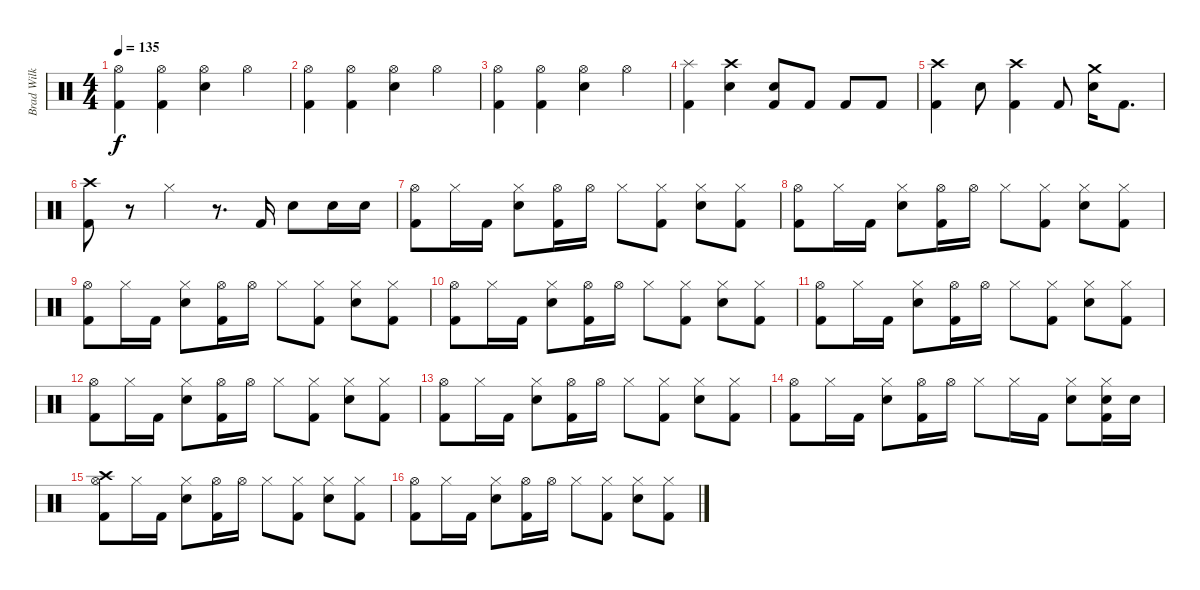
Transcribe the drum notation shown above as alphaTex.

\track ("Brad Wilk" "Brad Wilk") {instrument percussion}
\staff {score}
\articulation defaults
\ts (4 4)
\tempo 135
\clef neutral
\ks c
("Hi-Hat (open)" "Kick (hit) 2").4{dy f} ("Hi-Hat (open)" "Kick (hit) 2").4 ("Hi-Hat (open)" "Electric Snare (hit)").4 "Hi-Hat (open)".4 |
("Hi-Hat (open)" "Kick (hit) 2").4 ("Hi-Hat (open)" "Kick (hit) 2").4 ("Hi-Hat (open)" "Electric Snare (hit)").4 "Hi-Hat (open)".4 |
("Hi-Hat (open)" "Kick (hit) 2").4 ("Hi-Hat (open)" "Kick (hit) 2").4 ("Hi-Hat (open)" "Electric Snare (hit)").4 "Hi-Hat (open)".4 |
("Splash (hit)" "Kick (hit) 2").4 ("Crash high (hit)" "Electric Snare (hit)").4 ("Electric Snare (hit)" "Kick (hit) 2").8 "Kick (hit) 2".8 "Kick (hit) 2".8 "Kick (hit) 2".8 |
("Crash high (hit)" "Kick (hit) 2").4 "Electric Snare (hit)".8 ("Crash high (hit)" "Kick (hit) 2").4 "Kick (hit) 2".8 ("Crash medium (hit)" "Electric Snare (hit)").16 "Kick (hit) 2".8{d} |
("Crash high (hit)" "Kick (hit) 2").8 r.8 "Hi-Hat (closed)".4 r.8{d} "Kick (hit) 2".16 "Electric Snare (hit)".8 "Electric Snare (hit)".16 "Electric Snare (hit)".16 |
("Hi-Hat (open)" "Kick (hit) 2").8 "Hi-Hat (closed)".16 "Kick (hit) 2".16 ("Hi-Hat (closed)" "Electric Snare (hit)").8 ("Hi-Hat (open)" "Kick (hit) 2").16 "Hi-Hat (open)".16 "Hi-Hat (closed)".8 ("Hi-Hat (closed)" "Kick (hit) 2").8 ("Hi-Hat (closed)" "Electric Snare (hit)").8 ("Hi-Hat (closed)" "Kick (hit) 2").8 |
("Hi-Hat (open)" "Kick (hit) 2").8 "Hi-Hat (closed)".16 "Kick (hit) 2".16 ("Hi-Hat (closed)" "Electric Snare (hit)").8 ("Hi-Hat (open)" "Kick (hit) 2").16 "Hi-Hat (open)".16 "Hi-Hat (closed)".8 ("Hi-Hat (closed)" "Kick (hit) 2").8 ("Hi-Hat (closed)" "Electric Snare (hit)").8 ("Hi-Hat (closed)" "Kick (hit) 2").8 |
("Hi-Hat (open)" "Kick (hit) 2").8 "Hi-Hat (closed)".16 "Kick (hit) 2".16 ("Hi-Hat (closed)" "Electric Snare (hit)").8 ("Hi-Hat (open)" "Kick (hit) 2").16 "Hi-Hat (open)".16 "Hi-Hat (closed)".8 ("Hi-Hat (closed)" "Kick (hit) 2").8 ("Hi-Hat (closed)" "Electric Snare (hit)").8 ("Hi-Hat (closed)" "Kick (hit) 2").8 |
("Hi-Hat (open)" "Kick (hit) 2").8 "Hi-Hat (closed)".16 "Kick (hit) 2".16 ("Hi-Hat (closed)" "Electric Snare (hit)").8 ("Hi-Hat (open)" "Kick (hit) 2").16 "Hi-Hat (open)".16 "Hi-Hat (closed)".8 ("Hi-Hat (closed)" "Kick (hit) 2").8 ("Hi-Hat (closed)" "Electric Snare (hit)").8 ("Hi-Hat (closed)" "Kick (hit) 2").8 |
("Hi-Hat (open)" "Kick (hit) 2").8 "Hi-Hat (closed)".16 "Kick (hit) 2".16 ("Hi-Hat (closed)" "Electric Snare (hit)").8 ("Hi-Hat (open)" "Kick (hit) 2").16 "Hi-Hat (open)".16 "Hi-Hat (closed)".8 ("Hi-Hat (closed)" "Kick (hit) 2").8 ("Hi-Hat (closed)" "Electric Snare (hit)").8 ("Hi-Hat (closed)" "Kick (hit) 2").8 |
("Hi-Hat (open)" "Kick (hit) 2").8 "Hi-Hat (closed)".16 "Kick (hit) 2".16 ("Hi-Hat (closed)" "Electric Snare (hit)").8 ("Hi-Hat (open)" "Kick (hit) 2").16 "Hi-Hat (open)".16 "Hi-Hat (closed)".8 ("Hi-Hat (closed)" "Kick (hit) 2").8 ("Hi-Hat (closed)" "Electric Snare (hit)").8 ("Hi-Hat (closed)" "Kick (hit) 2").8 |
("Hi-Hat (open)" "Kick (hit) 2").8 "Hi-Hat (closed)".16 "Kick (hit) 2".16 ("Hi-Hat (closed)" "Electric Snare (hit)").8 ("Hi-Hat (open)" "Kick (hit) 2").16 "Hi-Hat (open)".16 "Hi-Hat (closed)".8 ("Hi-Hat (closed)" "Kick (hit) 2").8 ("Hi-Hat (closed)" "Electric Snare (hit)").8 ("Hi-Hat (closed)" "Kick (hit) 2").8 |
("Hi-Hat (open)" "Kick (hit) 2").8 "Hi-Hat (closed)".16 "Kick (hit) 2".16 ("Hi-Hat (closed)" "Electric Snare (hit)").8 ("Hi-Hat (open)" "Kick (hit) 2").16 "Hi-Hat (open)".16 "Hi-Hat (closed)".8 "Hi-Hat (closed)".16 "Kick (hit) 2".16 ("Hi-Hat (closed)" "Electric Snare (hit)").8 ("Hi-Hat (closed)" "Electric Snare (hit)" "Kick (hit) 2").16 "Electric Snare (hit)".16 |
("Crash high (hit)" "Hi-Hat (open)" "Kick (hit) 2").8 "Hi-Hat (closed)".16 "Kick (hit) 2".16 ("Hi-Hat (closed)" "Electric Snare (hit)").8 ("Hi-Hat (open)" "Kick (hit) 2").16 "Hi-Hat (open)".16 "Hi-Hat (closed)".8 ("Hi-Hat (closed)" "Kick (hit) 2").8 ("Hi-Hat (closed)" "Electric Snare (hit)").8 ("Hi-Hat (closed)" "Kick (hit) 2").8 |
("Hi-Hat (open)" "Kick (hit) 2").8 "Hi-Hat (closed)".16 "Kick (hit) 2".16 ("Hi-Hat (closed)" "Electric Snare (hit)").8 ("Hi-Hat (open)" "Kick (hit) 2").16 "Hi-Hat (open)".16 "Hi-Hat (closed)".8 ("Hi-Hat (closed)" "Kick (hit) 2").8 ("Hi-Hat (closed)" "Electric Snare (hit)").8 ("Hi-Hat (closed)" "Kick (hit) 2").8
